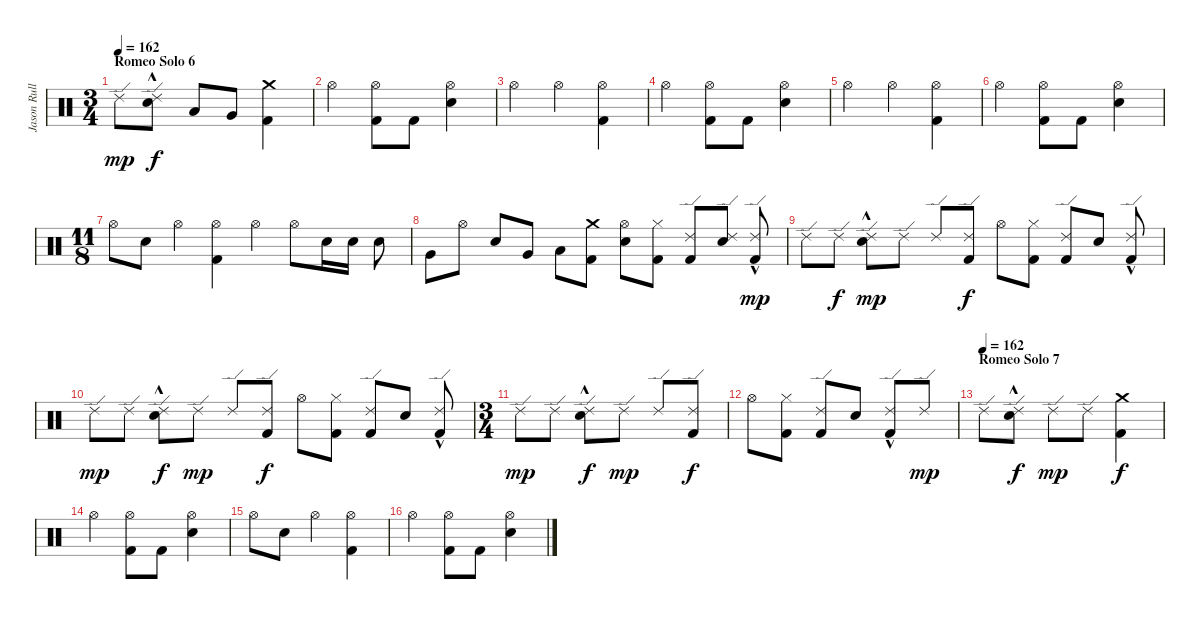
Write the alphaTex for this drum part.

\track ("Jason Rullo" "Jason Rull") {instrument percussion}
\staff {score}
\articulation defaults
\ts (3 4)
\section ("" "Romeo Solo 6")
\tempo 162
\clef neutral
\ks c "Ride (edge) 2".8{dy mp}
("Ride (edge) 2" "Electric Snare (hit)"{hac}).8{dy f} "Low Tom (hit)".8 "Very Low Tom (hit)".8 ("Kick (hit) 2" "Crash medium (hit)").4 |
"Hi-Hat (open)".4 ("Kick (hit) 2" "Hi-Hat (open)").8 "Kick (hit) 2".8 ("Electric Snare (hit)" "Hi-Hat (open)").4 |
"Hi-Hat (open)".4 "Hi-Hat (open)".4 ("Hi-Hat (open)" "Kick (hit) 2").4 |
"Hi-Hat (open)".4 ("Kick (hit) 2" "Hi-Hat (open)").8 "Kick (hit) 2".8 ("Electric Snare (hit)" "Hi-Hat (open)").4 |
"Hi-Hat (open)".4 "Hi-Hat (open)".4 ("Hi-Hat (open)" "Kick (hit) 2").4 |
"Hi-Hat (open)".4 ("Kick (hit) 2" "Hi-Hat (open)").8 "Kick (hit) 2".8 ("Electric Snare (hit)" "Hi-Hat (open)").4 |
\ts (11 8)
"Hi-Hat (open)".8 "Electric Snare (hit)".8 "Hi-Hat (open)".4 ("Hi-Hat (open)" "Kick (hit) 2").4 "Hi-Hat (open)".4 "Hi-Hat (open)".8 "Electric Snare (hit)".16 "Electric Snare (hit)".16 "Electric Snare (hit)".8 |
"Very Low Tom (hit)".8 "Hi-Hat (open)".8 "Electric Snare (hit)".8 "Very Low Tom (hit)".8 "Low Floor Tom (hit)".8 ("Crash medium (hit)" "Kick (hit) 2").8 ("Hi-Hat (open)" "Electric Snare (hit)").8 ("Hi-Hat (closed)" "Kick (hit) 2").8 ("Ride (edge) 2" "Kick (hit) 2").8 ("Ride (edge) 2" "Electric Snare (hit)").8 ("Ride (edge) 2" "Kick (hit) 2"{hac}).8{dy mp} |
"Ride (edge) 2".8 "Ride (edge) 2".8{dy f} ("Ride (edge) 2" "Electric Snare (hit)"{hac}).8{dy mp} "Ride (edge) 2".8 "Ride (edge) 2".8 ("Ride (edge) 2" "Kick (hit) 2").8{dy f} "Hi-Hat (open)".8 ("Hi-Hat (closed)" "Kick (hit) 2").8 ("Ride (edge) 2" "Kick (hit) 2").8 "Electric Snare (hit)".8 ("Ride (edge) 2" "Kick (hit) 2"{hac}).8 |
"Ride (edge) 2".8{dy mp} "Ride (edge) 2".8 ("Ride (edge) 2" "Electric Snare (hit)"{hac}).8{dy f} "Ride (edge) 2".8{dy mp} "Ride (edge) 2".8 ("Ride (edge) 2" "Kick (hit) 2").8{dy f} "Hi-Hat (open)".8 ("Hi-Hat (closed)" "Kick (hit) 2").8 ("Ride (edge) 2" "Kick (hit) 2").8 "Electric Snare (hit)".8 ("Ride (edge) 2" "Kick (hit) 2"{hac}).8 |
\ts (3 4)
"Ride (edge) 2".8{dy mp} "Ride (edge) 2".8 ("Ride (edge) 2" "Electric Snare (hit)"{hac}).8{dy f} "Ride (edge) 2".8{dy mp} "Ride (edge) 2".8 ("Ride (edge) 2" "Kick (hit) 2").8{dy f} |
"Hi-Hat (open)".8 ("Hi-Hat (closed)" "Kick (hit) 2").8 ("Ride (edge) 2" "Kick (hit) 2").8 "Electric Snare (hit)".8 ("Ride (edge) 2" "Kick (hit) 2"{hac}).8 "Ride (edge) 2".8{dy mp} |
\section ("" "Romeo Solo 7")
\tempo (162)
"Ride (edge) 2".8 ("Ride (edge) 2" "Electric Snare (hit)"{hac}).8{dy f} "Ride (edge) 2".8{dy mp} "Ride (edge) 2".8 ("Kick (hit) 2" "Crash medium (hit)").4{dy f} |
"Hi-Hat (open)".4 ("Kick (hit) 2" "Hi-Hat (open)").8 "Kick (hit) 2".8 ("Electric Snare (hit)" "Hi-Hat (open)").4 |
"Hi-Hat (open)".8 "Electric Snare (hit)".8 "Hi-Hat (open)".4 ("Hi-Hat (open)" "Kick (hit) 2").4 |
"Hi-Hat (open)".4 ("Kick (hit) 2" "Hi-Hat (open)").8 "Kick (hit) 2".8 ("Electric Snare (hit)" "Hi-Hat (open)").4
